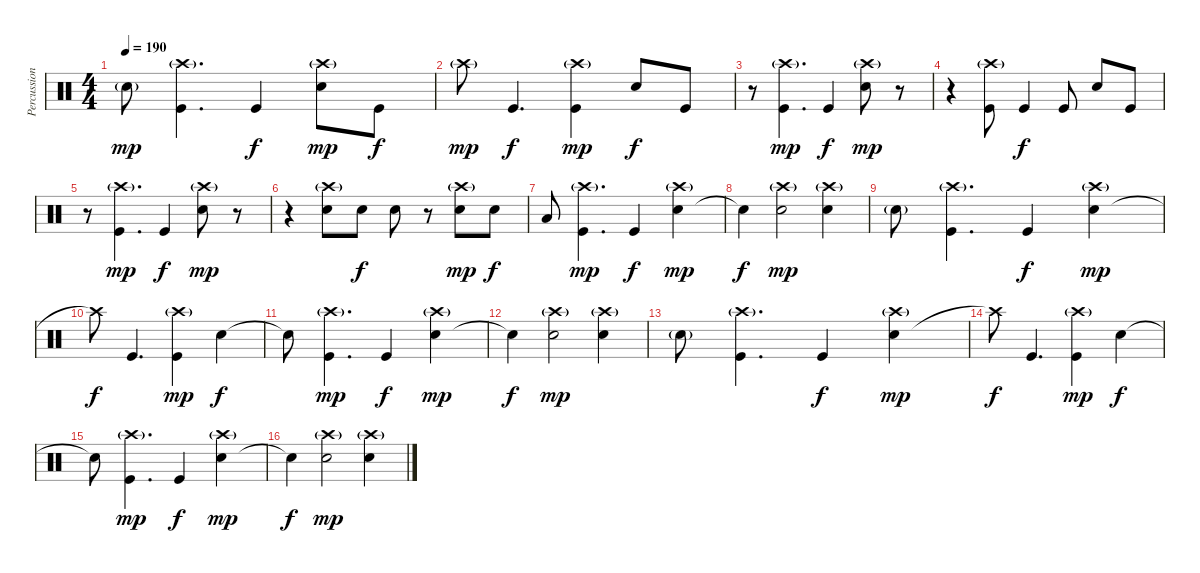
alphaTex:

\track ("Percussion" "Percussion") {instrument percussion}
\staff {score}
\articulation defaults
\ts (4 4)
\tempo 190
\clef neutral
\ks c "Electric Snare (hit)"{g}.8{dy mp}
("Kick (hit)" "Crash high (hit)"{g}).4{d} "Kick (hit)".4{dy f} ("Electric Snare (hit)" "Crash high (hit)"{g}).8{dy mp} "Kick (hit)".8{dy f} |
"Crash high (hit)"{g}.8{dy mp} "Kick (hit)".4{d dy f} ("Kick (hit)" "Crash high (hit)"{g}).4{dy mp} "Electric Snare (hit)".8{dy f} "Kick (hit)".8 |
r.8 ("Kick (hit)" "Crash high (hit)"{g}).4{d dy mp} "Kick (hit)".4{dy f} ("Electric Snare (hit)" "Crash high (hit)"{g}).8{dy mp} r.8 |
r.4 ("Kick (hit)" "Crash high (hit)"{g}).8 "Kick (hit)".4{dy f} "Kick (hit)".8 "Electric Snare (hit)".8 "Kick (hit)".8 |
r.8 ("Kick (hit)" "Crash high (hit)"{g}).4{d dy mp} "Kick (hit)".4{dy f} ("Electric Snare (hit)" "Crash high (hit)"{g}).8{dy mp} r.8 |
r.4 ("Electric Snare (hit)" "Crash high (hit)"{g}).8 "Electric Snare (hit)".8{dy f} "Electric Snare (hit)".8 r.8 ("Electric Snare (hit)" "Crash high (hit)"{g}).8{dy mp} "Electric Snare (hit)".8{dy f} |
"Low Tom (hit)".8 ("Kick (hit)" "Crash high (hit)"{g}).4{d dy mp} "Kick (hit)".4{dy f} ("Electric Snare (hit)" "Crash high (hit)"{g}).4{dy mp} |
"Electric Snare (hit)"{t}.4{dy f} ("Electric Snare (hit)" "Crash high (hit)"{g}).2{dy mp} ("Electric Snare (hit)" "Crash high (hit)"{g}).4 |
"Electric Snare (hit)"{g}.8 ("Kick (hit)" "Crash high (hit)"{g}).4{d} "Kick (hit)".4{dy f} ("Electric Snare (hit)" "Crash high (hit)"{g}).4{dy mp} |
"Crash high (hit)"{t}.8{dy f} "Kick (hit)".4{d} ("Kick (hit)" "Crash high (hit)"{g}).4{dy mp} "Electric Snare (hit)".4{dy f} |
"Electric Snare (hit)"{t}.8 ("Kick (hit)" "Crash high (hit)"{g}).4{d dy mp} "Kick (hit)".4{dy f} ("Electric Snare (hit)" "Crash high (hit)"{g}).4{dy mp} |
"Electric Snare (hit)"{t}.4{dy f} ("Electric Snare (hit)" "Crash high (hit)"{g}).2{dy mp} ("Electric Snare (hit)" "Crash high (hit)"{g}).4 |
"Electric Snare (hit)"{g}.8 ("Kick (hit)" "Crash high (hit)"{g}).4{d} "Kick (hit)".4{dy f} ("Electric Snare (hit)" "Crash high (hit)"{g}).4{dy mp} |
"Crash high (hit)"{t}.8{dy f} "Kick (hit)".4{d} ("Kick (hit)" "Crash high (hit)"{g}).4{dy mp} "Electric Snare (hit)".4{dy f} |
"Electric Snare (hit)"{t}.8 ("Kick (hit)" "Crash high (hit)"{g}).4{d dy mp} "Kick (hit)".4{dy f} ("Electric Snare (hit)" "Crash high (hit)"{g}).4{dy mp} |
"Electric Snare (hit)"{t}.4{dy f} ("Electric Snare (hit)" "Crash high (hit)"{g}).2{dy mp} ("Electric Snare (hit)" "Crash high (hit)"{g}).4
